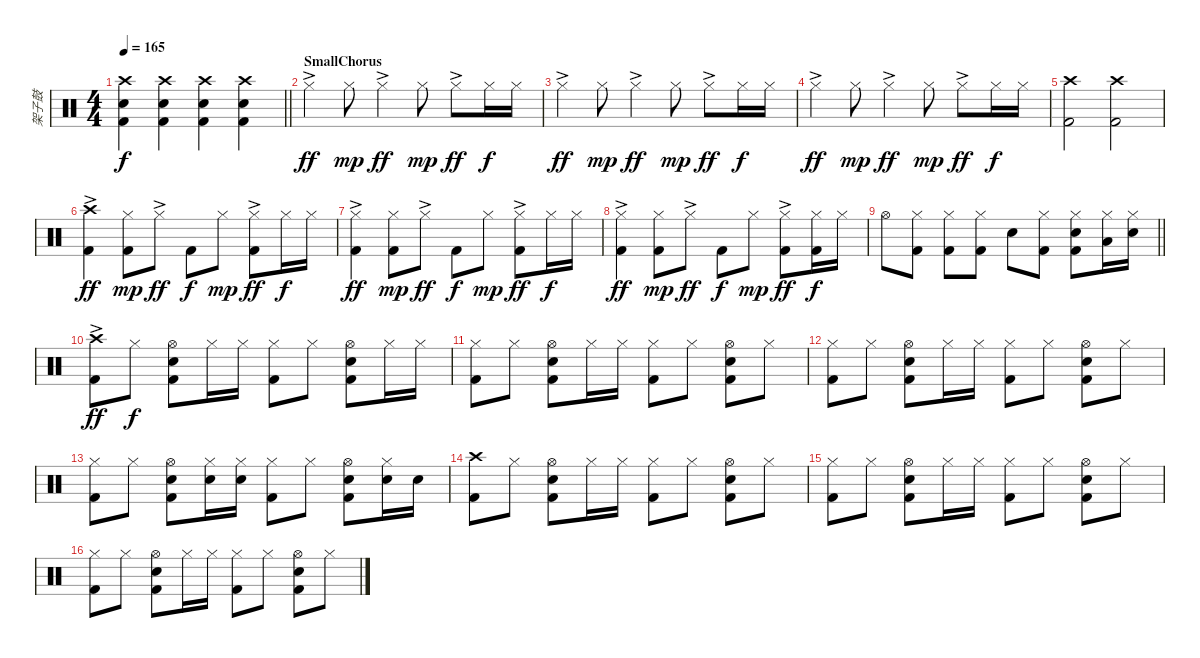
\track ("架子鼓" "架子鼓") {instrument percussion}
\staff {score}
\articulation defaults
\ts (4 4)
\tempo 165
\clef neutral
\barLineRight lightlight
\ks c
("Crash high (hit)" "Electric Snare (hit)" "Kick (hit) 2").4{dy f} ("Crash high (hit)" "Electric Snare (hit)" "Kick (hit) 2").4 ("Crash high (hit)" "Electric Snare (hit)" "Kick (hit) 2").4 ("Crash high (hit)" "Electric Snare (hit)" "Kick (hit) 2").4 |
\section ("" "SmallChorus")
"Hi-Hat (closed)"{ac}.4{dy ff} "Hi-Hat (closed)".8{dy mp} "Hi-Hat (closed)"{ac}.4{dy ff} "Hi-Hat (closed)".8{dy mp} "Hi-Hat (closed)"{ac}.8{dy ff} "Hi-Hat (closed)".16{dy f} "Hi-Hat (closed)".16 |
"Hi-Hat (closed)"{ac}.4{dy ff} "Hi-Hat (closed)".8{dy mp} "Hi-Hat (closed)"{ac}.4{dy ff} "Hi-Hat (closed)".8{dy mp} "Hi-Hat (closed)"{ac}.8{dy ff} "Hi-Hat (closed)".16{dy f} "Hi-Hat (closed)".16 |
"Hi-Hat (closed)"{ac}.4{dy ff} "Hi-Hat (closed)".8{dy mp} "Hi-Hat (closed)"{ac}.4{dy ff} "Hi-Hat (closed)".8{dy mp} "Hi-Hat (closed)"{ac}.8{dy ff} "Hi-Hat (closed)".16{dy f} "Hi-Hat (closed)".16 |
("Crash high (hit)" "Kick (hit) 2").2 ("Crash high (hit)" "Kick (hit) 2").2 |
("Crash high (hit)"{ac} "Kick (hit) 2").4{dy ff} ("Hi-Hat (closed)" "Kick (hit) 2").8{dy mp} "Hi-Hat (closed)"{ac}.8{dy ff} "Kick (hit) 2".8{dy f} "Hi-Hat (closed)".8{dy mp} ("Hi-Hat (closed)"{ac} "Kick (hit) 2").8{dy ff} "Hi-Hat (closed)".16{dy f} "Hi-Hat (closed)".16 |
("Hi-Hat (closed)"{ac} "Kick (hit) 2").4{dy ff} ("Hi-Hat (closed)" "Kick (hit) 2").8{dy mp} "Hi-Hat (closed)"{ac}.8{dy ff} "Kick (hit) 2".8{dy f} "Hi-Hat (closed)".8{dy mp} ("Hi-Hat (closed)"{ac} "Kick (hit) 2").8{dy ff} "Hi-Hat (closed)".16{dy f} "Hi-Hat (closed)".16 |
("Hi-Hat (closed)"{ac} "Kick (hit) 2").4{dy ff} ("Hi-Hat (closed)" "Kick (hit) 2").8{dy mp} "Hi-Hat (closed)"{ac}.8{dy ff} "Kick (hit) 2".8{dy f} "Hi-Hat (closed)".8{dy mp} ("Hi-Hat (closed)"{ac} "Kick (hit) 2").8{dy ff} ("Hi-Hat (closed)" "Kick (hit) 2").16{dy f} "Hi-Hat (closed)".16 |
\barLineRight lightlight "Hi-Hat (open)".8
("Hi-Hat (closed)" "Kick (hit) 2").8 ("Hi-Hat (closed)" "Kick (hit) 2").8 ("Hi-Hat (closed)" "Kick (hit) 2").8 "Electric Snare (hit)".8 ("Hi-Hat (closed)" "Kick (hit) 2").8 ("Hi-Hat (closed)" "Electric Snare (hit)" "Kick (hit) 2").8 ("Hi-Hat (closed)" "Low Tom (hit)").16 ("Hi-Hat (closed)" "Electric Snare (hit)").16 |
("Crash high (hit)"{ac} "Kick (hit) 2").8{dy ff} "Hi-Hat (closed)".8{dy f} ("Hi-Hat (open)" "Electric Snare (hit)" "Kick (hit) 2").8 "Hi-Hat (closed)".16 "Hi-Hat (closed)".16 ("Hi-Hat (closed)" "Kick (hit) 2").8 "Hi-Hat (closed)".8 ("Hi-Hat (open)" "Electric Snare (hit)" "Kick (hit) 2").8 "Hi-Hat (closed)".16 "Hi-Hat (closed)".16 |
("Hi-Hat (closed)" "Kick (hit) 2").8 "Hi-Hat (closed)".8 ("Hi-Hat (open)" "Electric Snare (hit)" "Kick (hit) 2").8 "Hi-Hat (closed)".16 "Hi-Hat (closed)".16 ("Hi-Hat (closed)" "Kick (hit) 2").8 "Hi-Hat (closed)".8 ("Hi-Hat (open)" "Electric Snare (hit)" "Kick (hit) 2").8 "Hi-Hat (closed)".8 |
("Hi-Hat (closed)" "Kick (hit) 2").8 "Hi-Hat (closed)".8 ("Hi-Hat (open)" "Electric Snare (hit)" "Kick (hit) 2").8 "Hi-Hat (closed)".16 "Hi-Hat (closed)".16 ("Hi-Hat (closed)" "Kick (hit) 2").8 "Hi-Hat (closed)".8 ("Hi-Hat (open)" "Electric Snare (hit)" "Kick (hit) 2").8 "Hi-Hat (closed)".8 |
("Hi-Hat (closed)" "Kick (hit) 2").8 "Hi-Hat (closed)".8 ("Hi-Hat (open)" "Electric Snare (hit)" "Kick (hit) 2").8 ("Hi-Hat (closed)" "Electric Snare (hit)").16 ("Hi-Hat (closed)" "Electric Snare (hit)").16 ("Hi-Hat (closed)" "Kick (hit) 2").8 "Hi-Hat (closed)".8 ("Hi-Hat (open)" "Electric Snare (hit)" "Kick (hit) 2").8 ("Hi-Hat (closed)" "Electric Snare (hit)").16 "Electric Snare (hit)".16 |
("Crash high (hit)" "Kick (hit) 2").8 "Hi-Hat (closed)".8 ("Hi-Hat (open)" "Electric Snare (hit)" "Kick (hit) 2").8 "Hi-Hat (closed)".16 "Hi-Hat (closed)".16 ("Hi-Hat (closed)" "Kick (hit) 2").8 "Hi-Hat (closed)".8 ("Hi-Hat (open)" "Electric Snare (hit)" "Kick (hit) 2").8 "Hi-Hat (closed)".8 |
("Hi-Hat (closed)" "Kick (hit) 2").8 "Hi-Hat (closed)".8 ("Hi-Hat (open)" "Electric Snare (hit)" "Kick (hit) 2").8 "Hi-Hat (closed)".16 "Hi-Hat (closed)".16 ("Hi-Hat (closed)" "Kick (hit) 2").8 "Hi-Hat (closed)".8 ("Hi-Hat (open)" "Electric Snare (hit)" "Kick (hit) 2").8 "Hi-Hat (closed)".8 |
("Hi-Hat (closed)" "Kick (hit) 2").8 "Hi-Hat (closed)".8 ("Hi-Hat (open)" "Electric Snare (hit)" "Kick (hit) 2").8 "Hi-Hat (closed)".16 "Hi-Hat (closed)".16 ("Hi-Hat (closed)" "Kick (hit) 2").8 "Hi-Hat (closed)".8 ("Hi-Hat (open)" "Electric Snare (hit)" "Kick (hit) 2").8 "Hi-Hat (closed)".8
